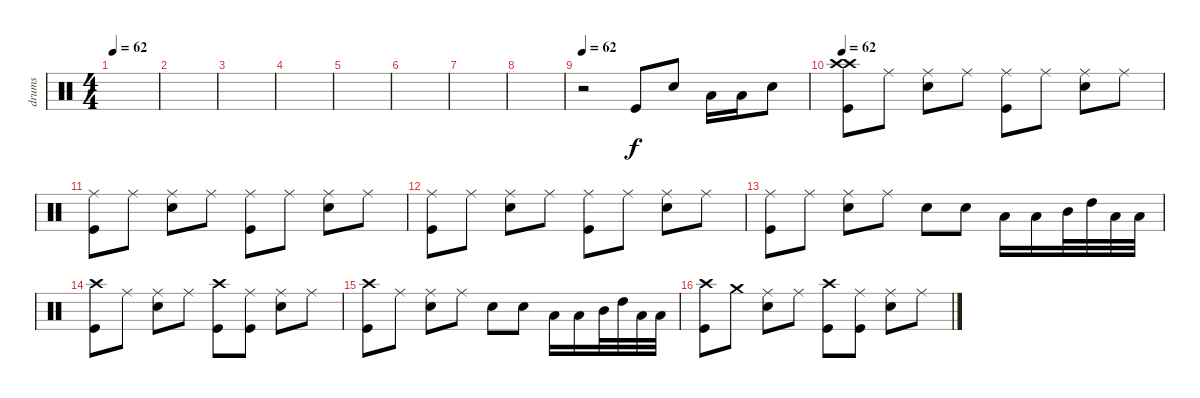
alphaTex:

\track ("drums" "drums") {instrument percussion}
\staff {score}
\articulation defaults
\ts (4 4)
\tempo 62
\clef neutral
\ks c
|
|
|
|
|
|
|
|
\tempo 62
r.2 "Kick (hit)".8 "Snare (hit) 2".8 "Low Floor Tom (hit)".16 "Low Floor Tom (hit)".16 "Snare (hit) 2".8 |
\tempo 62
("Kick (hit)" "Crash high (hit)" "Crash high (hit)").8 "Ride (middle)".8 ("Snare (hit) 2" "Ride (middle)").8 "Ride (middle)".8 ("Kick (hit)" "Ride (middle)").8 "Ride (middle)".8 ("Snare (hit) 2" "Ride (middle)").8 "Ride (middle)".8 |
("Kick (hit)" "Ride (middle)").8 "Ride (middle)".8 ("Snare (hit) 2" "Ride (middle)").8 "Ride (middle)".8 ("Kick (hit)" "Ride (middle)").8 "Ride (middle)".8 ("Snare (hit) 2" "Ride (middle)").8 "Ride (middle)".8 |
("Kick (hit)" "Ride (middle)").8 "Ride (middle)".8 ("Snare (hit) 2" "Ride (middle)").8 "Ride (middle)".8 ("Kick (hit)" "Ride (middle)").8 "Ride (middle)".8 ("Snare (hit) 2" "Ride (middle)").8 "Ride (middle)".8 |
("Kick (hit)" "Ride (middle)").8 "Ride (middle)".8 ("Snare (hit) 2" "Ride (middle)").8 "Ride (middle)".8 "Snare (hit) 2".8 "Snare (hit) 2".8 "Low Tom (hit)".16 "Low Tom (hit)".16 "Mid Tom (hit)".32 "High Tom (hit)".32 "Low Floor Tom (hit)".32 "Low Floor Tom (hit)".32 |
("Kick (hit)" "Crash high (hit)").8 "Ride (middle)".8 ("Snare (hit) 2" "Ride (middle)").8 "Ride (middle)".8 ("Kick (hit)" "Crash high (hit)").8 ("Kick (hit)" "Ride (middle)").8 ("Snare (hit) 2" "Ride (middle)").8 "Ride (middle)".8 |
("Kick (hit)" "Crash high (hit)").8 "Ride (middle)".8 ("Snare (hit) 2" "Ride (middle)").8 "Ride (middle)".8 "Snare (hit) 2".8 "Snare (hit) 2".8 "Low Tom (hit)".16 "Low Tom (hit)".16 "Mid Tom (hit)".32 "High Tom (hit)".32 "Low Floor Tom (hit)".32 "Low Floor Tom (hit)".32 |
("Kick (hit)" "Crash high (hit)").8 "Crash medium (hit)".8 ("Snare (hit) 2" "Ride (middle)").8 "Ride (middle)".8 ("Kick (hit)" "Crash high (hit)").8 ("Kick (hit)" "Ride (middle)").8 ("Snare (hit) 2" "Ride (middle)").8 "Ride (middle)".8
